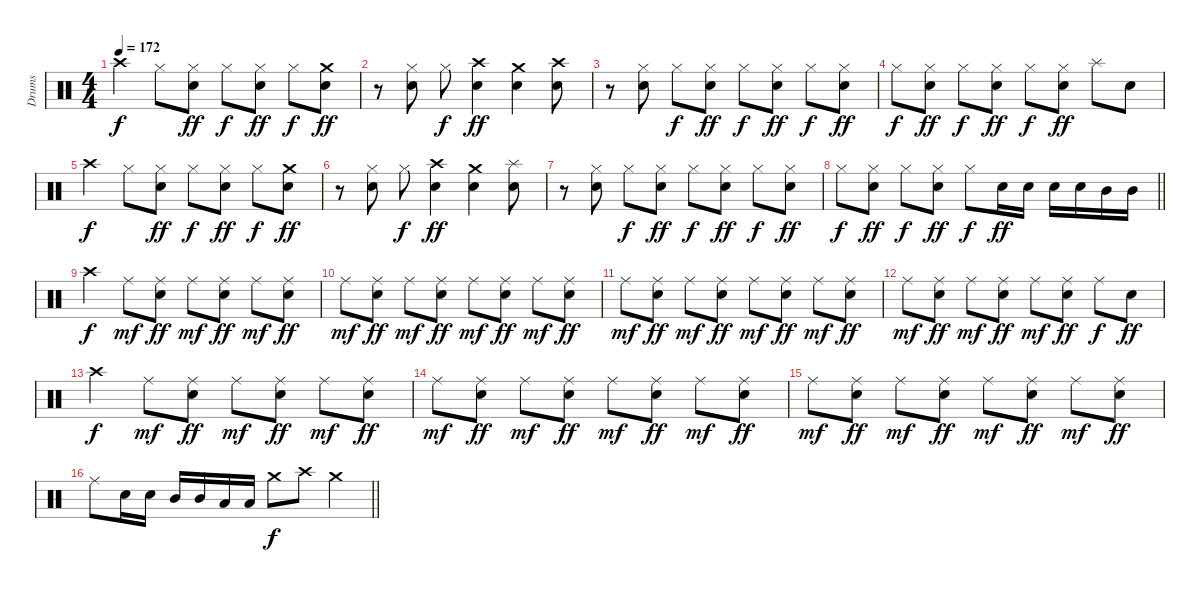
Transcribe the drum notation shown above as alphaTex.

\track ("Drums" "Drums") {instrument percussion}
\staff {score}
\articulation defaults
\ts (4 4)
\tempo 172
\clef neutral
\ks c "Crash high (hit)".4{dy f} "Hi-Hat (closed)".8
("Hi-Hat (closed)" "Snare (hit) 2").8{dy ff} "Hi-Hat (closed)".8{dy f} ("Hi-Hat (closed)" "Snare (hit) 2").8{dy ff} "Hi-Hat (closed)".8{dy f} ("Crash medium (hit)" "Snare (hit) 2").8{dy ff} |
r.8 ("Hi-Hat (closed)" "Snare (hit) 2").8 "Hi-Hat (closed)".8{dy f} ("Crash high (hit)" "Snare (hit) 2").4{dy ff} ("Crash medium (hit)" "Snare (hit) 2").4 ("Crash high (hit)" "Snare (hit) 2").8 |
r.8 ("Hi-Hat (closed)" "Snare (hit) 2").8 "Hi-Hat (closed)".8{dy f} ("Hi-Hat (closed)" "Snare (hit) 2").8{dy ff} "Hi-Hat (closed)".8{dy f} ("Hi-Hat (closed)" "Snare (hit) 2").8{dy ff} "Hi-Hat (closed)".8{dy f} ("Hi-Hat (closed)" "Snare (hit) 2").8{dy ff} |
"Hi-Hat (closed)".8{dy f} ("Hi-Hat (closed)" "Snare (hit) 2").8{dy ff} "Hi-Hat (closed)".8{dy f} ("Hi-Hat (closed)" "Snare (hit) 2").8{dy ff} "Hi-Hat (closed)".8{dy f} ("Hi-Hat (closed)" "Snare (hit) 2").8{dy ff} "Splash (hit)".8 "Snare (hit) 2".8 |
"Crash high (hit)".4{dy f} "Hi-Hat (closed)".8 ("Hi-Hat (closed)" "Snare (hit) 2").8{dy ff} "Hi-Hat (closed)".8{dy f} ("Hi-Hat (closed)" "Snare (hit) 2").8{dy ff} "Hi-Hat (closed)".8{dy f} ("Crash medium (hit)" "Snare (hit) 2").8{dy ff} |
r.8 ("Hi-Hat (closed)" "Snare (hit) 2").8 "Hi-Hat (closed)".8{dy f} ("Crash high (hit)" "Snare (hit) 2").4{dy ff} ("Crash medium (hit)" "Snare (hit) 2").4 ("Splash (hit)" "Snare (hit) 2").8 |
r.8 ("Hi-Hat (closed)" "Snare (hit) 2").8 "Hi-Hat (closed)".8{dy f} ("Hi-Hat (closed)" "Snare (hit) 2").8{dy ff} "Hi-Hat (closed)".8{dy f} ("Hi-Hat (closed)" "Snare (hit) 2").8{dy ff} "Hi-Hat (closed)".8{dy f} ("Hi-Hat (closed)" "Snare (hit) 2").8{dy ff} |
\barLineRight lightlight "Hi-Hat (closed)".8{dy f}
("Hi-Hat (closed)" "Snare (hit) 2").8{dy ff} "Hi-Hat (closed)".8{dy f} ("Hi-Hat (closed)" "Snare (hit) 2").8{dy ff} "Hi-Hat (closed)".8{dy f} "Snare (hit) 2".16{dy ff} "Snare (hit) 2".16 "Snare (hit) 2".16 "Snare (hit) 2".16 "Mid Tom (hit)".16 "Mid Tom (hit)".16 |
\section ("" "")
"Crash high (hit)".4{dy f} "Ride (middle)".8{dy mf} ("Ride (middle)" "Snare (hit) 2").8{dy ff} "Ride (middle)".8{dy mf} ("Ride (middle)" "Snare (hit) 2").8{dy ff} "Ride (middle)".8{dy mf} ("Ride (middle)" "Snare (hit) 2").8{dy ff} |
"Ride (middle)".8{dy mf} ("Ride (middle)" "Snare (hit) 2").8{dy ff} "Ride (middle)".8{dy mf} ("Ride (middle)" "Snare (hit) 2").8{dy ff} "Ride (middle)".8{dy mf} ("Ride (middle)" "Snare (hit) 2").8{dy ff} "Ride (middle)".8{dy mf} ("Ride (middle)" "Snare (hit) 2").8{dy ff} |
"Ride (middle)".8{dy mf} ("Ride (middle)" "Snare (hit) 2").8{dy ff} "Ride (middle)".8{dy mf} ("Ride (middle)" "Snare (hit) 2").8{dy ff} "Ride (middle)".8{dy mf} ("Ride (middle)" "Snare (hit) 2").8{dy ff} "Ride (middle)".8{dy mf} ("Ride (middle)" "Snare (hit) 2").8{dy ff} |
"Ride (middle)".8{dy mf} ("Ride (middle)" "Snare (hit) 2").8{dy ff} "Ride (middle)".8{dy mf} ("Ride (middle)" "Snare (hit) 2").8{dy ff} "Ride (middle)".8{dy mf} ("Ride (middle)" "Snare (hit) 2").8{dy ff} "Ride (middle)".8{dy f} "Snare (hit) 2".8{dy ff} |
"Crash high (hit)".4{dy f} "Ride (middle)".8{dy mf} ("Ride (middle)" "Snare (hit) 2").8{dy ff} "Ride (middle)".8{dy mf} ("Ride (middle)" "Snare (hit) 2").8{dy ff} "Ride (middle)".8{dy mf} ("Ride (middle)" "Snare (hit) 2").8{dy ff} |
"Ride (middle)".8{dy mf} ("Ride (middle)" "Snare (hit) 2").8{dy ff} "Ride (middle)".8{dy mf} ("Ride (middle)" "Snare (hit) 2").8{dy ff} "Ride (middle)".8{dy mf} ("Ride (middle)" "Snare (hit) 2").8{dy ff} "Ride (middle)".8{dy mf} ("Ride (middle)" "Snare (hit) 2").8{dy ff} |
"Ride (middle)".8{dy mf} ("Ride (middle)" "Snare (hit) 2").8{dy ff} "Ride (middle)".8{dy mf} ("Ride (middle)" "Snare (hit) 2").8{dy ff} "Ride (middle)".8{dy mf} ("Ride (middle)" "Snare (hit) 2").8{dy ff} "Ride (middle)".8{dy mf} ("Ride (middle)" "Snare (hit) 2").8{dy ff} |
\barLineRight lightlight "Ride (middle)".8 "Snare (hit) 2".16 "Snare (hit) 2".16 "Mid Tom (hit)".16 "Mid Tom (hit)".16 "Low Tom (hit)".16 "Low Tom (hit)".16 "Crash medium (hit)".8{dy f} "Crash high (hit)".8 "Crash medium (hit)".4
